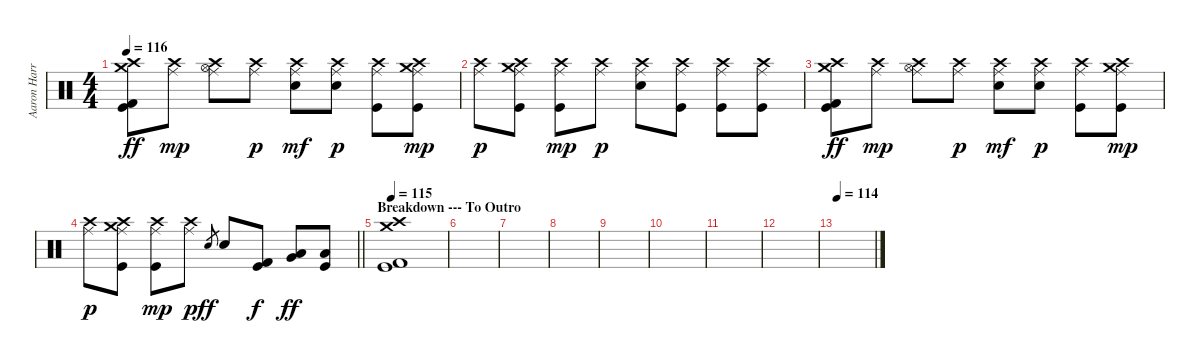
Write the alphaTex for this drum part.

\track ("Aaron Harris" "Aaron Harr") {instrument percussion}
\staff {score}
\articulation defaults
\ts (4 4)
\tempo 116
\clef neutral
\ks c
("Crash medium (hit)" "Crash high (hit)" "Kick (hit) 2" "Kick (hit)").8{dy ff} ("Crash high (hit)" "Ride (middle)").8{dy mp} ("Crash high (hit)" "Hi-Hat (open)" "Ride (middle)").8 ("Crash high (hit)" "Ride (middle)").8{dy p} ("Crash high (hit)" "Ride (middle)" "Electric Snare (hit)").8{dy mf} ("Crash high (hit)" "Ride (middle)" "Electric Snare (hit)").8{dy p} ("Crash high (hit)" "Ride (middle)" "Kick (hit)").8 ("Crash medium (hit)" "Crash high (hit)" "Ride (middle)" "Kick (hit)").8{dy mp} |
("Crash high (hit)" "Ride (middle)").8{dy p} ("Crash medium (hit)" "Crash high (hit)" "Ride (middle)" "Kick (hit)").8 ("Crash high (hit)" "Ride (middle)" "Kick (hit)").8{dy mp} ("Crash high (hit)" "Ride (middle)").8{dy p} ("Crash high (hit)" "Ride (middle)" "Electric Snare (hit)").8 ("Crash high (hit)" "Ride (middle)" "Kick (hit)").8 ("Crash high (hit)" "Ride (middle)" "Kick (hit)").8 ("Crash high (hit)" "Ride (middle)" "Kick (hit)").8 |
("Crash medium (hit)" "Crash high (hit)" "Kick (hit) 2" "Kick (hit)").8{dy ff} ("Crash high (hit)" "Ride (middle)").8{dy mp} ("Crash high (hit)" "Hi-Hat (open)" "Ride (middle)").8 ("Crash high (hit)" "Ride (middle)").8{dy p} ("Crash high (hit)" "Ride (middle)" "Electric Snare (hit)").8{dy mf} ("Crash high (hit)" "Ride (middle)" "Electric Snare (hit)").8{dy p} ("Crash high (hit)" "Ride (middle)" "Kick (hit)").8 ("Crash medium (hit)" "Crash high (hit)" "Ride (middle)" "Kick (hit)").8{dy mp} |
\barLineRight lightlight
("Crash high (hit)" "Ride (middle)").8{dy p} ("Crash medium (hit)" "Crash high (hit)" "Ride (middle)" "Kick (hit)").8 ("Crash high (hit)" "Ride (middle)" "Kick (hit)").8{dy mp} ("Crash high (hit)" "Ride (middle)").8{dy p} "Electric Snare (hit)".8{gr dy ff} "Electric Snare (hit)".8 ("Kick (hit) 2" "Kick (hit)").8{dy f} ("Low Tom (hit)" "Very Low Tom (hit)").8{dy ff} ("Low Floor Tom (hit)" "Kick (hit)").8 |
\section ("" "Breakdown --- To Outro")
\tempo 115
("Crash medium (hit)" "Crash high (hit)" "Kick (hit) 2" "Kick (hit)").1 |
|
|
|
|
|
|
|
\tempo 114
